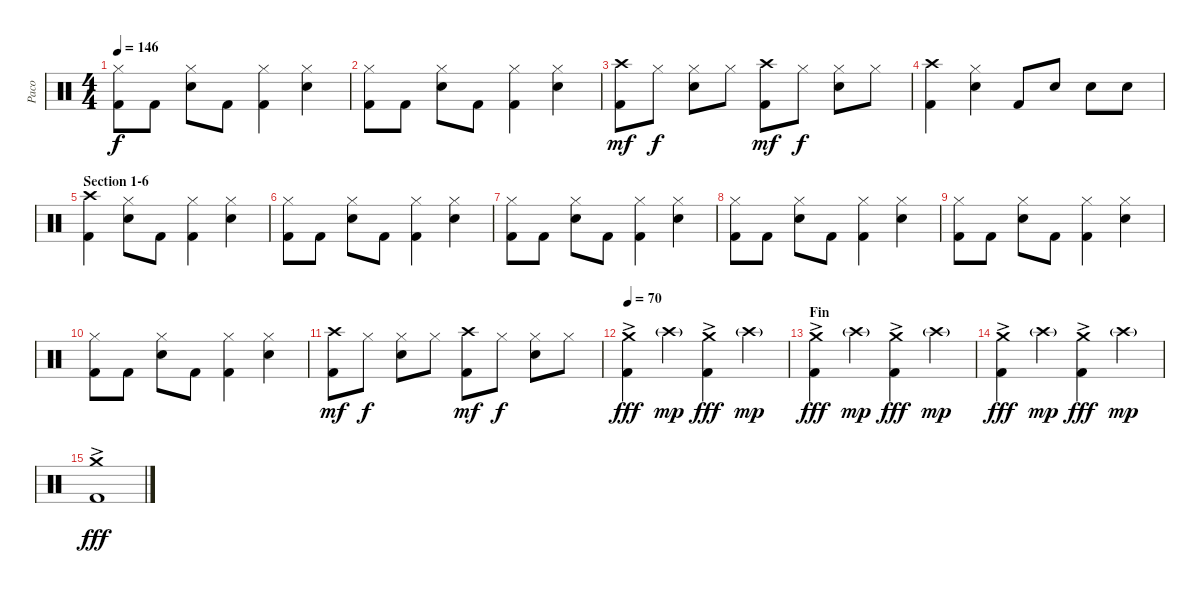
\track ("Paco" "Paco") {instrument percussion}
\staff {score}
\articulation defaults
\ts (4 4)
\tempo 146
\clef neutral
\ks c
("Hi-Hat (closed)" "Kick (hit) 2").8{dy f} "Kick (hit) 2".8 ("Hi-Hat (closed)" "Snare (hit) 2").8 "Kick (hit) 2".8 ("Hi-Hat (closed)" "Kick (hit) 2").4 ("Hi-Hat (closed)" "Snare (hit) 2").4 |
("Hi-Hat (closed)" "Kick (hit) 2").8 "Kick (hit) 2".8 ("Hi-Hat (closed)" "Snare (hit) 2").8 "Kick (hit) 2".8 ("Hi-Hat (closed)" "Kick (hit) 2").4 ("Hi-Hat (closed)" "Snare (hit) 2").4 |
("Crash high (hit)" "Kick (hit) 2").8{dy mf} "Hi-Hat (closed)".8{dy f} ("Hi-Hat (closed)" "Snare (hit) 2").8 "Hi-Hat (closed)".8 ("Crash high (hit)" "Kick (hit) 2").8{dy mf} "Hi-Hat (closed)".8{dy f} ("Hi-Hat (closed)" "Snare (hit) 2").8 "Hi-Hat (closed)".8 |
("Crash high (hit)" "Kick (hit) 2").4 ("Hi-Hat (closed)" "Snare (hit) 2").4 "Kick (hit) 2".8 "Snare (hit) 2".8 "Snare (hit) 2".8 "Snare (hit) 2".8 |
\section ("" "Section 1-6")
("Crash high (hit)" "Kick (hit) 2").4 ("Hi-Hat (closed)" "Snare (hit) 2").8 "Kick (hit) 2".8 ("Hi-Hat (closed)" "Kick (hit) 2").4 ("Hi-Hat (closed)" "Snare (hit) 2").4 |
("Hi-Hat (closed)" "Kick (hit) 2").8 "Kick (hit) 2".8 ("Hi-Hat (closed)" "Snare (hit) 2").8 "Kick (hit) 2".8 ("Hi-Hat (closed)" "Kick (hit) 2").4 ("Hi-Hat (closed)" "Snare (hit) 2").4 |
("Hi-Hat (closed)" "Kick (hit) 2").8 "Kick (hit) 2".8 ("Hi-Hat (closed)" "Snare (hit) 2").8 "Kick (hit) 2".8 ("Hi-Hat (closed)" "Kick (hit) 2").4 ("Hi-Hat (closed)" "Snare (hit) 2").4 |
("Hi-Hat (closed)" "Kick (hit) 2").8 "Kick (hit) 2".8 ("Hi-Hat (closed)" "Snare (hit) 2").8 "Kick (hit) 2".8 ("Hi-Hat (closed)" "Kick (hit) 2").4 ("Hi-Hat (closed)" "Snare (hit) 2").4 |
("Hi-Hat (closed)" "Kick (hit) 2").8 "Kick (hit) 2".8 ("Hi-Hat (closed)" "Snare (hit) 2").8 "Kick (hit) 2".8 ("Hi-Hat (closed)" "Kick (hit) 2").4 ("Hi-Hat (closed)" "Snare (hit) 2").4 |
("Hi-Hat (closed)" "Kick (hit) 2").8 "Kick (hit) 2".8 ("Hi-Hat (closed)" "Snare (hit) 2").8 "Kick (hit) 2".8 ("Hi-Hat (closed)" "Kick (hit) 2").4 ("Hi-Hat (closed)" "Snare (hit) 2").4 |
("Crash high (hit)" "Kick (hit) 2").8{dy mf} "Hi-Hat (closed)".8{dy f} ("Hi-Hat (closed)" "Snare (hit) 2").8 "Hi-Hat (closed)".8 ("Crash high (hit)" "Kick (hit) 2").8{dy mf} "Hi-Hat (closed)".8{dy f} ("Hi-Hat (closed)" "Snare (hit) 2").8 "Hi-Hat (closed)".8 |
\tempo 70
("Crash medium (hit)"{ac} "Kick (hit) 2").4{dy fff} "Crash high (hit)"{g}.4{dy mp} ("Crash medium (hit)"{ac} "Kick (hit) 2").4{dy fff} "Crash high (hit)"{g}.4{dy mp} |
\section ("" "Fin")
("Crash medium (hit)"{ac} "Kick (hit) 2").4{dy fff} "Crash high (hit)"{g}.4{dy mp} ("Crash medium (hit)"{ac} "Kick (hit) 2").4{dy fff} "Crash high (hit)"{g}.4{dy mp} |
("Crash medium (hit)"{ac} "Kick (hit) 2").4{dy fff} "Crash high (hit)"{g}.4{dy mp} ("Crash medium (hit)"{ac} "Kick (hit) 2").4{dy fff} "Crash high (hit)"{g}.4{dy mp} |
("Crash medium (hit)"{ac} "Kick (hit) 2").1{dy fff}
